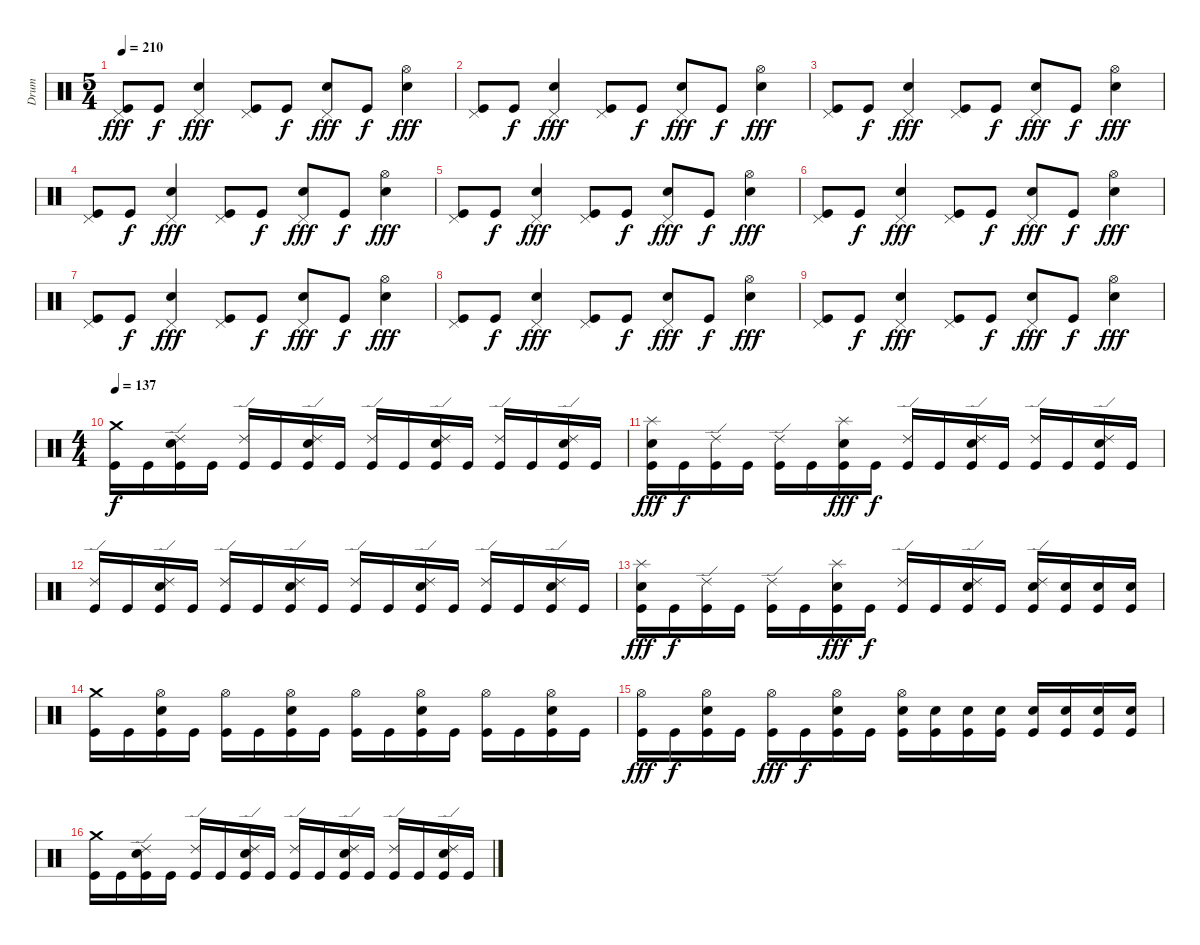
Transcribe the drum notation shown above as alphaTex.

\track ("Drum" "Drum") {instrument percussion}
\staff {score}
\articulation defaults
\ts (5 4)
\tempo 210
\clef neutral
\ks c
("Pedal Hi-Hat (hit)" "Kick (hit)").8{dy fff} "Kick (hit)".8{dy f} ("Pedal Hi-Hat (hit)" "Snare (hit) 2").4{dy fff} ("Pedal Hi-Hat (hit)" "Kick (hit)").8 "Kick (hit)".8{dy f} ("Pedal Hi-Hat (hit)" "Snare (hit) 2").8{dy fff} "Kick (hit)".8{dy f} ("Hi-Hat (open)" "Snare (hit) 2").4{dy fff} |
("Pedal Hi-Hat (hit)" "Kick (hit)").8 "Kick (hit)".8{dy f} ("Pedal Hi-Hat (hit)" "Snare (hit) 2").4{dy fff} ("Pedal Hi-Hat (hit)" "Kick (hit)").8 "Kick (hit)".8{dy f} ("Pedal Hi-Hat (hit)" "Snare (hit) 2").8{dy fff} "Kick (hit)".8{dy f} ("Hi-Hat (open)" "Snare (hit) 2").4{dy fff} |
("Pedal Hi-Hat (hit)" "Kick (hit)").8 "Kick (hit)".8{dy f} ("Pedal Hi-Hat (hit)" "Snare (hit) 2").4{dy fff} ("Pedal Hi-Hat (hit)" "Kick (hit)").8 "Kick (hit)".8{dy f} ("Pedal Hi-Hat (hit)" "Snare (hit) 2").8{dy fff} "Kick (hit)".8{dy f} ("Hi-Hat (open)" "Snare (hit) 2").4{dy fff} |
("Pedal Hi-Hat (hit)" "Kick (hit)").8 "Kick (hit)".8{dy f} ("Pedal Hi-Hat (hit)" "Snare (hit) 2").4{dy fff} ("Pedal Hi-Hat (hit)" "Kick (hit)").8 "Kick (hit)".8{dy f} ("Pedal Hi-Hat (hit)" "Snare (hit) 2").8{dy fff} "Kick (hit)".8{dy f} ("Hi-Hat (open)" "Snare (hit) 2").4{dy fff} |
("Pedal Hi-Hat (hit)" "Kick (hit)").8 "Kick (hit)".8{dy f} ("Pedal Hi-Hat (hit)" "Snare (hit) 2").4{dy fff} ("Pedal Hi-Hat (hit)" "Kick (hit)").8 "Kick (hit)".8{dy f} ("Pedal Hi-Hat (hit)" "Snare (hit) 2").8{dy fff} "Kick (hit)".8{dy f} ("Hi-Hat (open)" "Snare (hit) 2").4{dy fff} |
("Pedal Hi-Hat (hit)" "Kick (hit)").8 "Kick (hit)".8{dy f} ("Pedal Hi-Hat (hit)" "Snare (hit) 2").4{dy fff} ("Pedal Hi-Hat (hit)" "Kick (hit)").8 "Kick (hit)".8{dy f} ("Pedal Hi-Hat (hit)" "Snare (hit) 2").8{dy fff} "Kick (hit)".8{dy f} ("Hi-Hat (open)" "Snare (hit) 2").4{dy fff} |
("Pedal Hi-Hat (hit)" "Kick (hit)").8 "Kick (hit)".8{dy f} ("Pedal Hi-Hat (hit)" "Snare (hit) 2").4{dy fff} ("Pedal Hi-Hat (hit)" "Kick (hit)").8 "Kick (hit)".8{dy f} ("Pedal Hi-Hat (hit)" "Snare (hit) 2").8{dy fff} "Kick (hit)".8{dy f} ("Hi-Hat (open)" "Snare (hit) 2").4{dy fff} |
("Pedal Hi-Hat (hit)" "Kick (hit)").8 "Kick (hit)".8{dy f} ("Pedal Hi-Hat (hit)" "Snare (hit) 2").4{dy fff} ("Pedal Hi-Hat (hit)" "Kick (hit)").8 "Kick (hit)".8{dy f} ("Pedal Hi-Hat (hit)" "Snare (hit) 2").8{dy fff} "Kick (hit)".8{dy f} ("Hi-Hat (open)" "Snare (hit) 2").4{dy fff} |
("Pedal Hi-Hat (hit)" "Kick (hit)").8 "Kick (hit)".8{dy f} ("Pedal Hi-Hat (hit)" "Snare (hit) 2").4{dy fff} ("Pedal Hi-Hat (hit)" "Kick (hit)").8 "Kick (hit)".8{dy f} ("Pedal Hi-Hat (hit)" "Snare (hit) 2").8{dy fff} "Kick (hit)".8{dy f} ("Hi-Hat (open)" "Snare (hit) 2").4{dy fff} |
\ts (4 4)
\tempo 137
("Crash medium (hit)" "Kick (hit)").16{dy f} "Kick (hit)".16 ("Ride (edge) 2" "Snare (hit) 2" "Kick (hit)").16 "Kick (hit)".16 ("Ride (edge) 2" "Kick (hit)").16 "Kick (hit)".16 ("Ride (edge) 2" "Snare (hit) 2" "Kick (hit)").16 "Kick (hit)".16 ("Ride (edge) 2" "Kick (hit)").16 "Kick (hit)".16 ("Ride (edge) 2" "Snare (hit) 2" "Kick (hit)").16 "Kick (hit)".16 ("Ride (edge) 2" "Kick (hit)").16 "Kick (hit)".16 ("Ride (edge) 2" "Snare (hit) 2" "Kick (hit)").16 "Kick (hit)".16 |
("Splash (hit)" "Snare (hit) 2" "Kick (hit)").16{dy fff} "Kick (hit)".16{dy f} ("Ride (edge) 2" "Kick (hit)").16 "Kick (hit)".16 ("Ride (edge) 2" "Kick (hit)").16 "Kick (hit)".16 ("Splash (hit)" "Snare (hit) 2" "Kick (hit)").16{dy fff} "Kick (hit)".16{dy f} ("Ride (edge) 2" "Kick (hit)").16 "Kick (hit)".16 ("Ride (edge) 2" "Snare (hit) 2" "Kick (hit)").16 "Kick (hit)".16 ("Ride (edge) 2" "Kick (hit)").16 "Kick (hit)".16 ("Ride (edge) 2" "Snare (hit) 2" "Kick (hit)").16 "Kick (hit)".16 |
("Ride (edge) 2" "Kick (hit)").16 "Kick (hit)".16 ("Ride (edge) 2" "Snare (hit) 2" "Kick (hit)").16 "Kick (hit)".16 ("Ride (edge) 2" "Kick (hit)").16 "Kick (hit)".16 ("Ride (edge) 2" "Snare (hit) 2" "Kick (hit)").16 "Kick (hit)".16 ("Ride (edge) 2" "Kick (hit)").16 "Kick (hit)".16 ("Ride (edge) 2" "Snare (hit) 2" "Kick (hit)").16 "Kick (hit)".16 ("Ride (edge) 2" "Kick (hit)").16 "Kick (hit)".16 ("Ride (edge) 2" "Snare (hit) 2" "Kick (hit)").16 "Kick (hit)".16 |
("Splash (hit)" "Snare (hit) 2" "Kick (hit)").16{dy fff} "Kick (hit)".16{dy f} ("Ride (edge) 2" "Kick (hit)").16 "Kick (hit)".16 ("Ride (edge) 2" "Kick (hit)").16 "Kick (hit)".16 ("Splash (hit)" "Snare (hit) 2" "Kick (hit)").16{dy fff} "Kick (hit)".16{dy f} ("Ride (edge) 2" "Kick (hit)").16 "Kick (hit)".16 ("Ride (edge) 2" "Snare (hit) 2" "Kick (hit)").16 "Kick (hit)".16 ("Ride (edge) 2" "Snare (hit) 2" "Kick (hit)").16 ("Snare (hit) 2" "Kick (hit)").16 ("Snare (hit) 2" "Kick (hit)").16 ("Snare (hit) 2" "Kick (hit)").16 |
("Crash medium (hit)" "Kick (hit)").16 "Kick (hit)".16 ("Hi-Hat (open)" "Snare (hit) 2" "Kick (hit)").16 "Kick (hit)".16 ("Hi-Hat (open)" "Kick (hit)").16 "Kick (hit)".16 ("Hi-Hat (open)" "Snare (hit) 2" "Kick (hit)").16 "Kick (hit)".16 ("Hi-Hat (open)" "Kick (hit)").16 "Kick (hit)".16 ("Hi-Hat (open)" "Snare (hit) 2" "Kick (hit)").16 "Kick (hit)".16 ("Hi-Hat (open)" "Kick (hit)").16 "Kick (hit)".16 ("Hi-Hat (open)" "Snare (hit) 2" "Kick (hit)").16 "Kick (hit)".16 |
("Hi-Hat (open)" "Kick (hit)").16{dy fff} "Kick (hit)".16{dy f} ("Hi-Hat (open)" "Snare (hit) 2" "Kick (hit)").16 "Kick (hit)".16 ("Hi-Hat (open)" "Kick (hit)").16{dy fff} "Kick (hit)".16{dy f} ("Hi-Hat (open)" "Snare (hit) 2" "Kick (hit)").16 "Kick (hit)".16 ("Hi-Hat (open)" "Snare (hit) 2" "Kick (hit)").16 ("Snare (hit) 2" "Kick (hit)").16 ("Snare (hit) 2" "Kick (hit)").16 ("Snare (hit) 2" "Kick (hit)").16 ("Snare (hit) 2" "Kick (hit)").16 ("Snare (hit) 2" "Kick (hit)").16 ("Snare (hit) 2" "Kick (hit)").16 ("Snare (hit) 2" "Kick (hit)").16 |
("Crash medium (hit)" "Kick (hit)").16 "Kick (hit)".16 ("Ride (edge) 2" "Snare (hit) 2" "Kick (hit)").16 "Kick (hit)".16 ("Ride (edge) 2" "Kick (hit)").16 "Kick (hit)".16 ("Ride (edge) 2" "Snare (hit) 2" "Kick (hit)").16 "Kick (hit)".16 ("Ride (edge) 2" "Kick (hit)").16 "Kick (hit)".16 ("Ride (edge) 2" "Snare (hit) 2" "Kick (hit)").16 "Kick (hit)".16 ("Ride (edge) 2" "Kick (hit)").16 "Kick (hit)".16 ("Ride (edge) 2" "Snare (hit) 2" "Kick (hit)").16 "Kick (hit)".16
